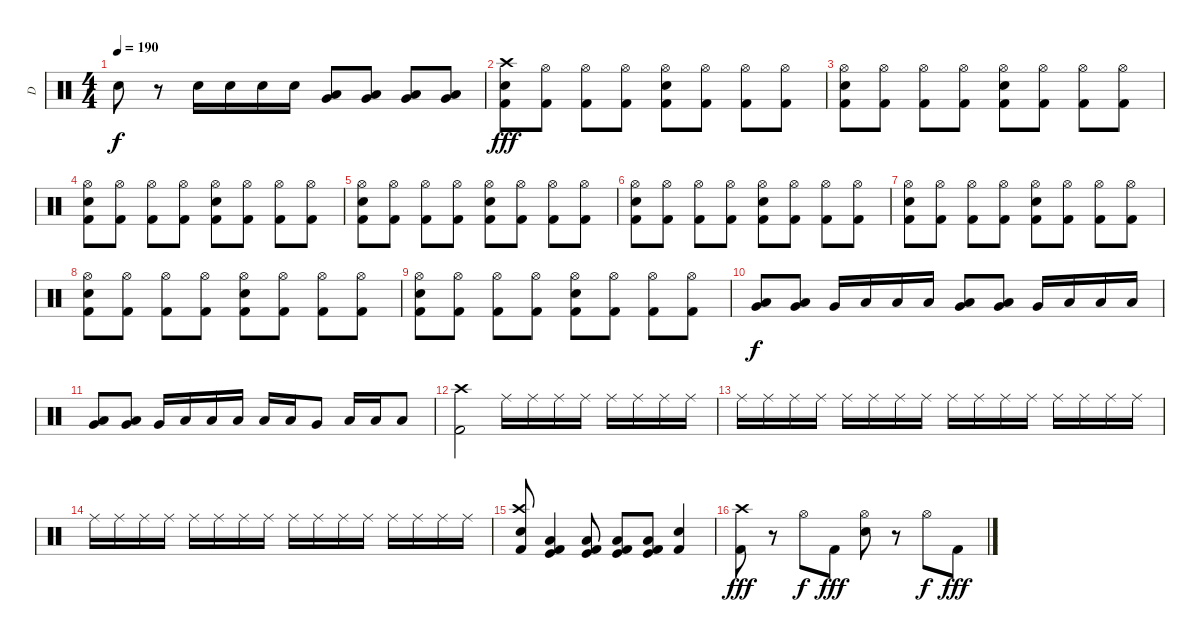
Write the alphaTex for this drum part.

\track ("D" "D") {instrument percussion}
\staff {score}
\articulation defaults
\ts (4 4)
\tempo 190
\clef neutral
\ks c "Electric Snare (hit)".8{dy f}
r.8 "Electric Snare (hit)".16 "Electric Snare (hit)".16 "Electric Snare (hit)".16 "Electric Snare (hit)".16 ("Low Floor Tom (hit)" "Very Low Tom (hit)").8 ("Low Floor Tom (hit)" "Very Low Tom (hit)").8 ("Low Floor Tom (hit)" "Very Low Tom (hit)").8 ("Low Floor Tom (hit)" "Very Low Tom (hit)").8 |
("Crash high (hit)" "Electric Snare (hit)" "Kick (hit) 2").8{dy fff} ("Hi-Hat (open)" "Kick (hit) 2").8 ("Hi-Hat (open)" "Kick (hit) 2").8 ("Hi-Hat (open)" "Kick (hit) 2").8 ("Hi-Hat (open)" "Electric Snare (hit)" "Kick (hit) 2").8 ("Hi-Hat (open)" "Kick (hit) 2").8 ("Hi-Hat (open)" "Kick (hit) 2").8 ("Hi-Hat (open)" "Kick (hit) 2").8 |
("Hi-Hat (open)" "Electric Snare (hit)" "Kick (hit) 2").8 ("Hi-Hat (open)" "Kick (hit) 2").8 ("Hi-Hat (open)" "Kick (hit) 2").8 ("Hi-Hat (open)" "Kick (hit) 2").8 ("Hi-Hat (open)" "Electric Snare (hit)" "Kick (hit) 2").8 ("Hi-Hat (open)" "Kick (hit) 2").8 ("Hi-Hat (open)" "Kick (hit) 2").8 ("Hi-Hat (open)" "Kick (hit) 2").8 |
("Hi-Hat (open)" "Electric Snare (hit)" "Kick (hit) 2").8 ("Hi-Hat (open)" "Kick (hit) 2").8 ("Hi-Hat (open)" "Kick (hit) 2").8 ("Hi-Hat (open)" "Kick (hit) 2").8 ("Hi-Hat (open)" "Electric Snare (hit)" "Kick (hit) 2").8 ("Hi-Hat (open)" "Kick (hit) 2").8 ("Hi-Hat (open)" "Kick (hit) 2").8 ("Hi-Hat (open)" "Kick (hit) 2").8 |
("Hi-Hat (open)" "Electric Snare (hit)" "Kick (hit) 2").8 ("Hi-Hat (open)" "Kick (hit) 2").8 ("Hi-Hat (open)" "Kick (hit) 2").8 ("Hi-Hat (open)" "Kick (hit) 2").8 ("Hi-Hat (open)" "Electric Snare (hit)" "Kick (hit) 2").8 ("Hi-Hat (open)" "Kick (hit) 2").8 ("Hi-Hat (open)" "Kick (hit) 2").8 ("Hi-Hat (open)" "Kick (hit) 2").8 |
("Hi-Hat (open)" "Electric Snare (hit)" "Kick (hit) 2").8 ("Hi-Hat (open)" "Kick (hit) 2").8 ("Hi-Hat (open)" "Kick (hit) 2").8 ("Hi-Hat (open)" "Kick (hit) 2").8 ("Hi-Hat (open)" "Electric Snare (hit)" "Kick (hit) 2").8 ("Hi-Hat (open)" "Kick (hit) 2").8 ("Hi-Hat (open)" "Kick (hit) 2").8 ("Hi-Hat (open)" "Kick (hit) 2").8 |
("Hi-Hat (open)" "Electric Snare (hit)" "Kick (hit) 2").8 ("Hi-Hat (open)" "Kick (hit) 2").8 ("Hi-Hat (open)" "Kick (hit) 2").8 ("Hi-Hat (open)" "Kick (hit) 2").8 ("Hi-Hat (open)" "Electric Snare (hit)" "Kick (hit) 2").8 ("Hi-Hat (open)" "Kick (hit) 2").8 ("Hi-Hat (open)" "Kick (hit) 2").8 ("Hi-Hat (open)" "Kick (hit) 2").8 |
("Hi-Hat (open)" "Electric Snare (hit)" "Kick (hit) 2").8 ("Hi-Hat (open)" "Kick (hit) 2").8 ("Hi-Hat (open)" "Kick (hit) 2").8 ("Hi-Hat (open)" "Kick (hit) 2").8 ("Hi-Hat (open)" "Electric Snare (hit)" "Kick (hit) 2").8 ("Hi-Hat (open)" "Kick (hit) 2").8 ("Hi-Hat (open)" "Kick (hit) 2").8 ("Hi-Hat (open)" "Kick (hit) 2").8 |
("Hi-Hat (open)" "Electric Snare (hit)" "Kick (hit) 2").8 ("Hi-Hat (open)" "Kick (hit) 2").8 ("Hi-Hat (open)" "Kick (hit) 2").8 ("Hi-Hat (open)" "Kick (hit) 2").8 ("Hi-Hat (open)" "Electric Snare (hit)" "Kick (hit) 2").8 ("Hi-Hat (open)" "Kick (hit) 2").8 ("Hi-Hat (open)" "Kick (hit) 2").8 ("Hi-Hat (open)" "Kick (hit) 2").8 |
("Low Floor Tom (hit)" "Very Low Tom (hit)").8{dy f} ("Low Floor Tom (hit)" "Very Low Tom (hit)").8 "Very Low Tom (hit)".16 "Low Tom (hit)".16 "Low Tom (hit)".16 "Low Tom (hit)".16 ("Low Floor Tom (hit)" "Very Low Tom (hit)").8 ("Low Floor Tom (hit)" "Very Low Tom (hit)").8 "Very Low Tom (hit)".16 "Low Tom (hit)".16 "Low Tom (hit)".16 "Low Tom (hit)".16 |
("Low Floor Tom (hit)" "Very Low Tom (hit)").8 ("Low Floor Tom (hit)" "Very Low Tom (hit)").8 "Very Low Tom (hit)".16 "Low Tom (hit)".16 "Low Tom (hit)".16 "Low Tom (hit)".16 "Low Floor Tom (hit)".16 "Low Floor Tom (hit)".16 "Very Low Tom (hit)".8 "Low Tom (hit)".16 "Low Tom (hit)".16 "Low Tom (hit)".8 |
("Crash high (hit)" "Kick (hit) 2").2 "Ride (middle)".16 "Ride (middle)".16 "Ride (middle)".16 "Ride (middle)".16 "Ride (middle)".16 "Ride (middle)".16 "Ride (middle)".16 "Ride (middle)".16 |
"Ride (middle)".16 "Ride (middle)".16 "Ride (middle)".16 "Ride (middle)".16 "Ride (middle)".16 "Ride (middle)".16 "Ride (middle)".16 "Ride (middle)".16 "Ride (middle)".16 "Ride (middle)".16 "Ride (middle)".16 "Ride (middle)".16 "Ride (middle)".16 "Ride (middle)".16 "Ride (middle)".16 "Ride (middle)".16 |
"Ride (middle)".16 "Ride (middle)".16 "Ride (middle)".16 "Ride (middle)".16 "Ride (middle)".16 "Ride (middle)".16 "Ride (middle)".16 "Ride (middle)".16 "Ride (middle)".16 "Ride (middle)".16 "Ride (middle)".16 "Ride (middle)".16 "Ride (middle)".16 "Ride (middle)".16 "Ride (middle)".16 "Ride (middle)".16 |
("Crash high (hit)" "Electric Snare (hit)" "Kick (hit) 2").8 ("Low Floor Tom (hit)" "Kick (hit)" "Kick (hit) 2").4 ("Low Floor Tom (hit)" "Kick (hit)" "Kick (hit) 2").8 ("Low Floor Tom (hit)" "Kick (hit)" "Kick (hit) 2").8 ("Low Floor Tom (hit)" "Kick (hit)" "Kick (hit) 2").8 ("Electric Snare (hit)" "Kick (hit) 2").4 |
("Crash high (hit)" "Kick (hit) 2").8{dy fff} r.8 "Hi-Hat (open)".8{dy f} "Kick (hit) 2".8{dy fff} ("Hi-Hat (open)" "Electric Snare (hit)").8 r.8 "Hi-Hat (open)".8{dy f} "Kick (hit) 2".8{dy fff}
